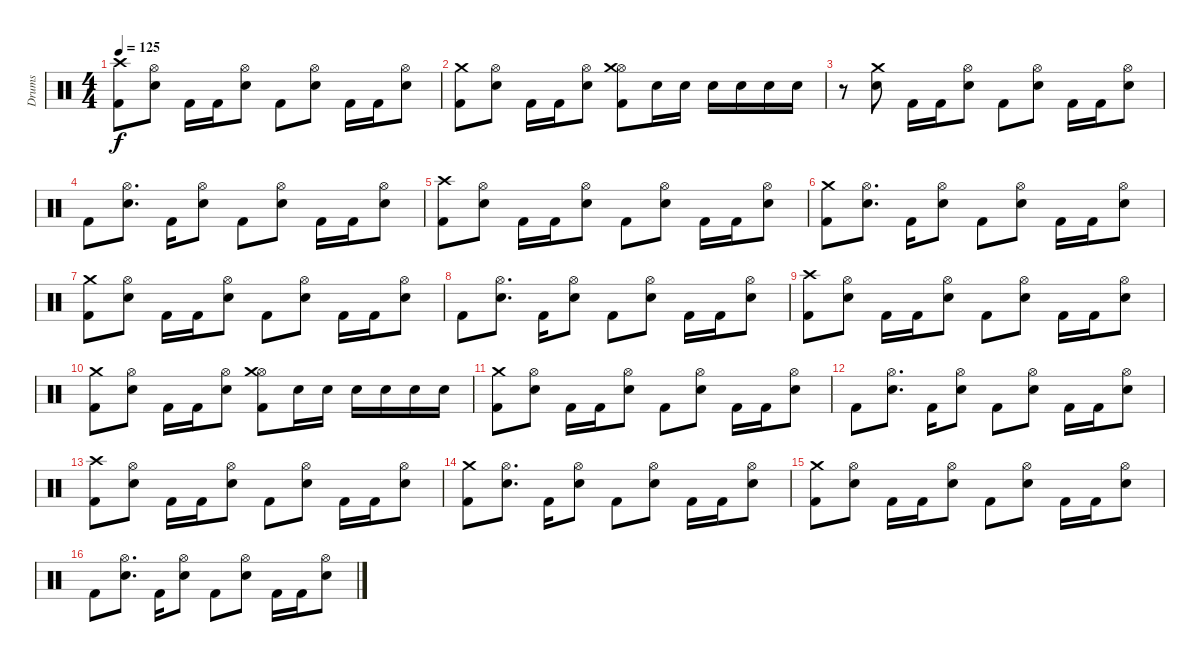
\track ("Drums" "Drums") {instrument percussion}
\staff {score}
\articulation defaults
\ts (4 4)
\tempo 125
\clef neutral
\ks c
("Crash high (hit)" "Kick (hit) 2").8{dy f} ("Hi-Hat (open)" "Snare (hit) 2").8 "Kick (hit) 2".16 "Kick (hit) 2".16 ("Hi-Hat (open)" "Snare (hit) 2").8 "Kick (hit) 2".8 ("Hi-Hat (open)" "Snare (hit) 2").8 "Kick (hit) 2".16 "Kick (hit) 2".16 ("Hi-Hat (open)" "Snare (hit) 2").8 |
("Crash medium (hit)" "Kick (hit) 2").8 ("Hi-Hat (open)" "Snare (hit) 2").8 "Kick (hit) 2".16 "Kick (hit) 2".16 ("Hi-Hat (open)" "Snare (hit) 2").8 ("Hi-Hat (open)" "Crash medium (hit)" "Kick (hit) 2").8 "Electric Snare (hit)".16 "Electric Snare (hit)".16 "Electric Snare (hit)".16 "Electric Snare (hit)".16 "Electric Snare (hit)".16 "Electric Snare (hit)".16 |
r.8 ("Crash medium (hit)" "Snare (hit) 2").8 "Kick (hit) 2".16 "Kick (hit) 2".16 ("Hi-Hat (open)" "Snare (hit) 2").8 "Kick (hit) 2".8 ("Hi-Hat (open)" "Snare (hit) 2").8 "Kick (hit) 2".16 "Kick (hit) 2".16 ("Hi-Hat (open)" "Snare (hit) 2").8 |
"Kick (hit) 2".8 ("Hi-Hat (open)" "Snare (hit) 2").8{d} "Kick (hit) 2".16 ("Hi-Hat (open)" "Snare (hit) 2").8 "Kick (hit) 2".8 ("Hi-Hat (open)" "Snare (hit) 2").8 "Kick (hit) 2".16 "Kick (hit) 2".16 ("Hi-Hat (open)" "Snare (hit) 2").8 |
("Crash high (hit)" "Kick (hit) 2").8 ("Hi-Hat (open)" "Snare (hit) 2").8 "Kick (hit) 2".16 "Kick (hit) 2".16 ("Hi-Hat (open)" "Snare (hit) 2").8 "Kick (hit) 2".8 ("Hi-Hat (open)" "Snare (hit) 2").8 "Kick (hit) 2".16 "Kick (hit) 2".16 ("Hi-Hat (open)" "Snare (hit) 2").8 |
("Crash medium (hit)" "Kick (hit) 2").8 ("Hi-Hat (open)" "Snare (hit) 2").8{d} "Kick (hit) 2".16 ("Hi-Hat (open)" "Snare (hit) 2").8 "Kick (hit) 2".8 ("Hi-Hat (open)" "Snare (hit) 2").8 "Kick (hit) 2".16 "Kick (hit) 2".16 ("Hi-Hat (open)" "Snare (hit) 2").8 |
("Crash medium (hit)" "Kick (hit) 2").8 ("Hi-Hat (open)" "Snare (hit) 2").8 "Kick (hit) 2".16 "Kick (hit) 2".16 ("Hi-Hat (open)" "Snare (hit) 2").8 "Kick (hit) 2".8 ("Hi-Hat (open)" "Snare (hit) 2").8 "Kick (hit) 2".16 "Kick (hit) 2".16 ("Hi-Hat (open)" "Snare (hit) 2").8 |
"Kick (hit) 2".8 ("Hi-Hat (open)" "Snare (hit) 2").8{d} "Kick (hit) 2".16 ("Hi-Hat (open)" "Snare (hit) 2").8 "Kick (hit) 2".8 ("Hi-Hat (open)" "Snare (hit) 2").8 "Kick (hit) 2".16 "Kick (hit) 2".16 ("Hi-Hat (open)" "Snare (hit) 2").8 |
("Crash high (hit)" "Kick (hit) 2").8 ("Hi-Hat (open)" "Snare (hit) 2").8 "Kick (hit) 2".16 "Kick (hit) 2".16 ("Hi-Hat (open)" "Snare (hit) 2").8 "Kick (hit) 2".8 ("Hi-Hat (open)" "Snare (hit) 2").8 "Kick (hit) 2".16 "Kick (hit) 2".16 ("Hi-Hat (open)" "Snare (hit) 2").8 |
("Crash medium (hit)" "Kick (hit) 2").8 ("Hi-Hat (open)" "Snare (hit) 2").8 "Kick (hit) 2".16 "Kick (hit) 2".16 ("Hi-Hat (open)" "Snare (hit) 2").8 ("Hi-Hat (open)" "Crash medium (hit)" "Kick (hit) 2").8 "Electric Snare (hit)".16 "Electric Snare (hit)".16 "Electric Snare (hit)".16 "Electric Snare (hit)".16 "Electric Snare (hit)".16 "Electric Snare (hit)".16 |
("Crash medium (hit)" "Kick (hit) 2").8 ("Hi-Hat (open)" "Snare (hit) 2").8 "Kick (hit) 2".16 "Kick (hit) 2".16 ("Hi-Hat (open)" "Snare (hit) 2").8 "Kick (hit) 2".8 ("Hi-Hat (open)" "Snare (hit) 2").8 "Kick (hit) 2".16 "Kick (hit) 2".16 ("Hi-Hat (open)" "Snare (hit) 2").8 |
"Kick (hit) 2".8 ("Hi-Hat (open)" "Snare (hit) 2").8{d} "Kick (hit) 2".16 ("Hi-Hat (open)" "Snare (hit) 2").8 "Kick (hit) 2".8 ("Hi-Hat (open)" "Snare (hit) 2").8 "Kick (hit) 2".16 "Kick (hit) 2".16 ("Hi-Hat (open)" "Snare (hit) 2").8 |
("Crash high (hit)" "Kick (hit) 2").8 ("Hi-Hat (open)" "Snare (hit) 2").8 "Kick (hit) 2".16 "Kick (hit) 2".16 ("Hi-Hat (open)" "Snare (hit) 2").8 "Kick (hit) 2".8 ("Hi-Hat (open)" "Snare (hit) 2").8 "Kick (hit) 2".16 "Kick (hit) 2".16 ("Hi-Hat (open)" "Snare (hit) 2").8 |
("Crash medium (hit)" "Kick (hit) 2").8 ("Hi-Hat (open)" "Snare (hit) 2").8{d} "Kick (hit) 2".16 ("Hi-Hat (open)" "Snare (hit) 2").8 "Kick (hit) 2".8 ("Hi-Hat (open)" "Snare (hit) 2").8 "Kick (hit) 2".16 "Kick (hit) 2".16 ("Hi-Hat (open)" "Snare (hit) 2").8 |
("Crash medium (hit)" "Kick (hit) 2").8 ("Hi-Hat (open)" "Snare (hit) 2").8 "Kick (hit) 2".16 "Kick (hit) 2".16 ("Hi-Hat (open)" "Snare (hit) 2").8 "Kick (hit) 2".8 ("Hi-Hat (open)" "Snare (hit) 2").8 "Kick (hit) 2".16 "Kick (hit) 2".16 ("Hi-Hat (open)" "Snare (hit) 2").8 |
"Kick (hit) 2".8 ("Hi-Hat (open)" "Snare (hit) 2").8{d} "Kick (hit) 2".16 ("Hi-Hat (open)" "Snare (hit) 2").8 "Kick (hit) 2".8 ("Hi-Hat (open)" "Snare (hit) 2").8 "Kick (hit) 2".16 "Kick (hit) 2".16 ("Hi-Hat (open)" "Snare (hit) 2").8
